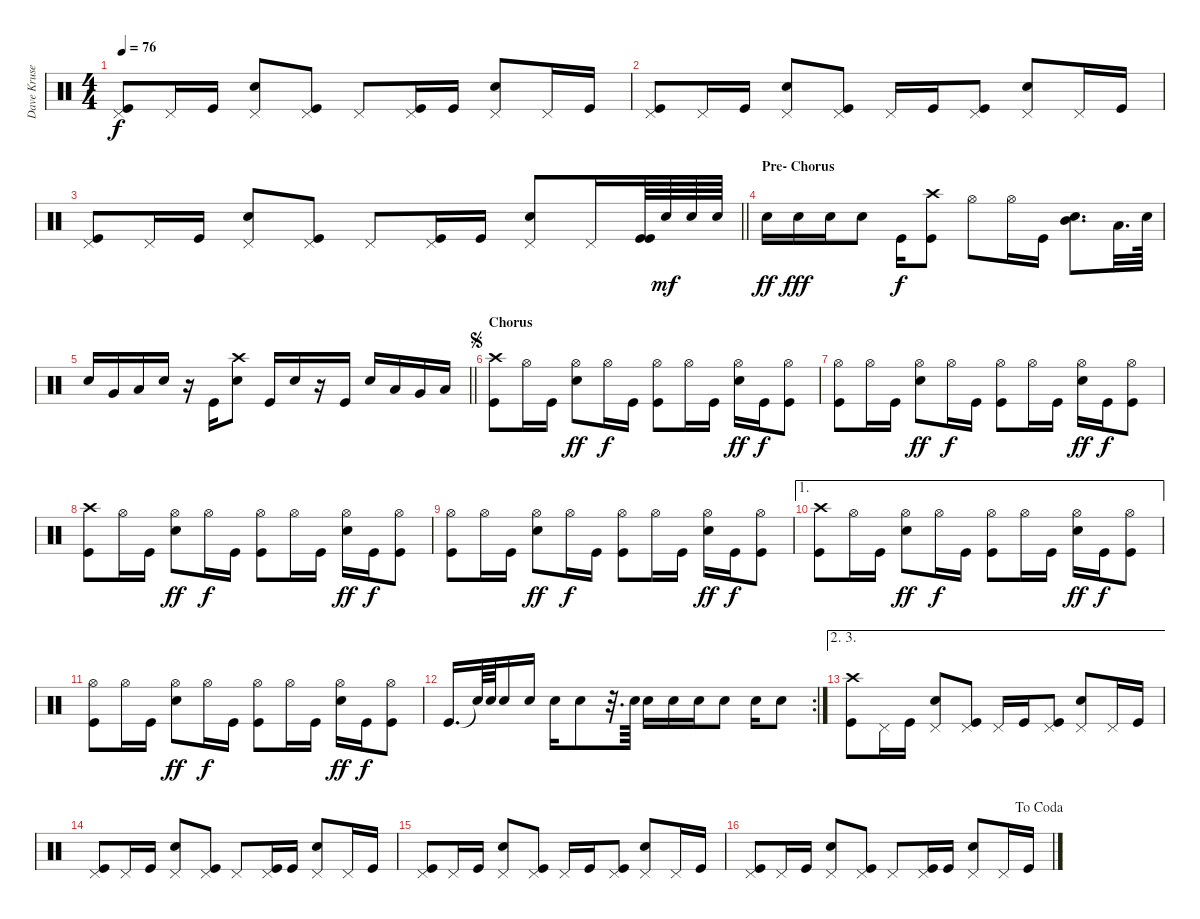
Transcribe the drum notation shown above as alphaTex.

\track ("Dave Krusen" "Dave Kruse") {instrument percussion}
\staff {score}
\articulation defaults
\ts (4 4)
\tempo 76
\clef neutral
\ks c
("Pedal Hi-Hat (hit)" "Kick (hit)").8{dy f} "Pedal Hi-Hat (hit)".16 "Kick (hit)".16 ("Pedal Hi-Hat (hit)" "Electric Snare (hit)").8 ("Pedal Hi-Hat (hit)" "Kick (hit)").8 "Pedal Hi-Hat (hit)".8 ("Pedal Hi-Hat (hit)" "Kick (hit)").16 "Kick (hit)".16 ("Pedal Hi-Hat (hit)" "Electric Snare (hit)").8 "Pedal Hi-Hat (hit)".16 "Kick (hit)".16 |
("Pedal Hi-Hat (hit)" "Kick (hit)").8 "Pedal Hi-Hat (hit)".16 "Kick (hit)".16 ("Pedal Hi-Hat (hit)" "Electric Snare (hit)").8 ("Pedal Hi-Hat (hit)" "Kick (hit)").8 "Pedal Hi-Hat (hit)".16 "Kick (hit)".16 ("Pedal Hi-Hat (hit)" "Kick (hit)").8 ("Pedal Hi-Hat (hit)" "Electric Snare (hit)").8 "Pedal Hi-Hat (hit)".16 "Kick (hit)".16 |
\barLineRight lightlight
("Pedal Hi-Hat (hit)" "Kick (hit)").8 "Pedal Hi-Hat (hit)".16 "Kick (hit)".16 ("Pedal Hi-Hat (hit)" "Electric Snare (hit)").8 ("Pedal Hi-Hat (hit)" "Kick (hit)").8 "Pedal Hi-Hat (hit)".8 ("Pedal Hi-Hat (hit)" "Kick (hit)").16 "Kick (hit)".16 ("Pedal Hi-Hat (hit)" "Electric Snare (hit)").8 "Pedal Hi-Hat (hit)".16 ("Kick (hit)" "Kick (hit)").64 "Electric Snare (hit)".64{dy mf} "Electric Snare (hit)".64 "Electric Snare (hit)".64 |
\section ("" "Pre- Chorus")
"Electric Snare (hit)".16{dy ff} "Electric Snare (hit)".16{dy fff} "Electric Snare (hit)".16 "Electric Snare (hit)".8 "Kick (hit)".16{dy f} ("Kick (hit)" "Crash high (hit)").8 "Hi-Hat (open)".8 "Hi-Hat (open)".16 "Kick (hit)".16 ("Mid Tom (hit)" "Electric Snare (hit)").8{d} "Low Tom (hit)".32{d} "Electric Snare (hit)".64 |
\barLineRight lightlight "Electric Snare (hit)".16 "Very Low Tom (hit)".16 "Low Floor Tom (hit)".16 "Electric Snare (hit)".16
r.16 "Kick (hit)".16 ("Crash high (hit)" "Electric Snare (hit)").8 "Kick (hit)".16 "Electric Snare (hit)".16 r.16 "Kick (hit)".16 "Electric Snare (hit)".16 "Low Tom (hit)".16 "Very Low Tom (hit)".16 "Low Floor Tom (hit)".16 |
\section ("" "Chorus")
\jump segno
("Crash high (hit)" "Kick (hit)").8 "Hi-Hat (open)".16 "Kick (hit)".16 ("Electric Snare (hit)" "Hi-Hat (open)").8{dy ff} "Hi-Hat (open)".16{dy f} "Kick (hit)".16 ("Kick (hit)" "Hi-Hat (open)").8 "Hi-Hat (open)".16 "Kick (hit)".16 ("Electric Snare (hit)" "Hi-Hat (open)").16{dy ff} "Kick (hit)".16{dy f} ("Kick (hit)" "Hi-Hat (open)").8 |
("Hi-Hat (open)" "Kick (hit)").8 "Hi-Hat (open)".16 "Kick (hit)".16 ("Electric Snare (hit)" "Hi-Hat (open)").8{dy ff} "Hi-Hat (open)".16{dy f} "Kick (hit)".16 ("Kick (hit)" "Hi-Hat (open)").8 "Hi-Hat (open)".16 "Kick (hit)".16 ("Electric Snare (hit)" "Hi-Hat (open)").16{dy ff} "Kick (hit)".16{dy f} ("Kick (hit)" "Hi-Hat (open)").8 |
("Crash high (hit)" "Kick (hit)").8 "Hi-Hat (open)".16 "Kick (hit)".16 ("Electric Snare (hit)" "Hi-Hat (open)").8{dy ff} "Hi-Hat (open)".16{dy f} "Kick (hit)".16 ("Kick (hit)" "Hi-Hat (open)").8 "Hi-Hat (open)".16 "Kick (hit)".16 ("Electric Snare (hit)" "Hi-Hat (open)").16{dy ff} "Kick (hit)".16{dy f} ("Kick (hit)" "Hi-Hat (open)").8 |
("Hi-Hat (open)" "Kick (hit)").8 "Hi-Hat (open)".16 "Kick (hit)".16 ("Electric Snare (hit)" "Hi-Hat (open)").8{dy ff} "Hi-Hat (open)".16{dy f} "Kick (hit)".16 ("Kick (hit)" "Hi-Hat (open)").8 "Hi-Hat (open)".16 "Kick (hit)".16 ("Electric Snare (hit)" "Hi-Hat (open)").16{dy ff} "Kick (hit)".16{dy f} ("Kick (hit)" "Hi-Hat (open)").8 |
\ae 1
("Crash high (hit)" "Kick (hit)").8 "Hi-Hat (open)".16 "Kick (hit)".16 ("Electric Snare (hit)" "Hi-Hat (open)").8{dy ff} "Hi-Hat (open)".16{dy f} "Kick (hit)".16 ("Kick (hit)" "Hi-Hat (open)").8 "Hi-Hat (open)".16 "Kick (hit)".16 ("Electric Snare (hit)" "Hi-Hat (open)").16{dy ff} "Kick (hit)".16{dy f} ("Kick (hit)" "Hi-Hat (open)").8 |
("Hi-Hat (open)" "Kick (hit)").8 "Hi-Hat (open)".16 "Kick (hit)".16 ("Electric Snare (hit)" "Hi-Hat (open)").8{dy ff} "Hi-Hat (open)".16{dy f} "Kick (hit)".16 ("Kick (hit)" "Hi-Hat (open)").8 "Hi-Hat (open)".16 "Kick (hit)".16 ("Electric Snare (hit)" "Hi-Hat (open)").16{dy ff} "Kick (hit)".16{dy f} ("Kick (hit)" "Hi-Hat (open)").8 |
\rc 2 "Kick (hit)".16{d} "Snare (hit)"{t}.64 "Electric Snare (hit)".64 "Electric Snare (hit)".16 "Electric Snare (hit)".16 "Electric Snare (hit)".16 "Electric Snare (hit)".8
r.32{d} "Electric Snare (hit)".64 "Electric Snare (hit)".16 "Electric Snare (hit)".16 "Electric Snare (hit)".16 "Electric Snare (hit)".8 "Electric Snare (hit)".16 "Electric Snare (hit)".8 |
\ae (2 3)
("Crash high (hit)" "Kick (hit)").8 "Pedal Hi-Hat (hit)".16 "Kick (hit)".16 ("Pedal Hi-Hat (hit)" "Electric Snare (hit)").8 ("Pedal Hi-Hat (hit)" "Kick (hit)").8 "Pedal Hi-Hat (hit)".16 "Kick (hit)".16 ("Pedal Hi-Hat (hit)" "Kick (hit)").8 ("Pedal Hi-Hat (hit)" "Electric Snare (hit)").8 "Pedal Hi-Hat (hit)".16 "Kick (hit)".16 |
("Pedal Hi-Hat (hit)" "Kick (hit)").8 "Pedal Hi-Hat (hit)".16 "Kick (hit)".16 ("Pedal Hi-Hat (hit)" "Electric Snare (hit)").8 ("Pedal Hi-Hat (hit)" "Kick (hit)").8 "Pedal Hi-Hat (hit)".8 ("Pedal Hi-Hat (hit)" "Kick (hit)").16 "Kick (hit)".16 ("Pedal Hi-Hat (hit)" "Electric Snare (hit)").8 "Pedal Hi-Hat (hit)".16 "Kick (hit)".16 |
("Pedal Hi-Hat (hit)" "Kick (hit)").8 "Pedal Hi-Hat (hit)".16 "Kick (hit)".16 ("Pedal Hi-Hat (hit)" "Electric Snare (hit)").8 ("Pedal Hi-Hat (hit)" "Kick (hit)").8 "Pedal Hi-Hat (hit)".16 "Kick (hit)".16 ("Pedal Hi-Hat (hit)" "Kick (hit)").8 ("Pedal Hi-Hat (hit)" "Electric Snare (hit)").8 "Pedal Hi-Hat (hit)".16 "Kick (hit)".16 |
\jump dacoda
("Pedal Hi-Hat (hit)" "Kick (hit)").8 "Pedal Hi-Hat (hit)".16 "Kick (hit)".16 ("Pedal Hi-Hat (hit)" "Electric Snare (hit)").8 ("Pedal Hi-Hat (hit)" "Kick (hit)").8 "Pedal Hi-Hat (hit)".8 ("Pedal Hi-Hat (hit)" "Kick (hit)").16 "Kick (hit)".16 ("Pedal Hi-Hat (hit)" "Electric Snare (hit)").8 "Pedal Hi-Hat (hit)".16 "Kick (hit)".16
